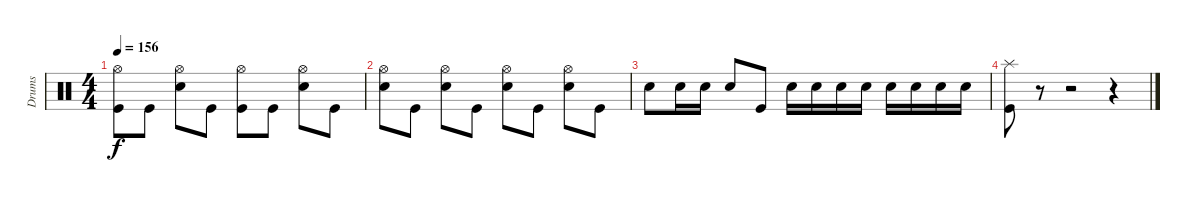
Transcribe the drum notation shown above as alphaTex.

\track ("Drums" "Drums") {instrument percussion}
\staff {score}
\articulation defaults
\ts (4 4)
\tempo 156
\clef neutral
\ks c
("Kick (hit)" "Hi-Hat (open)").8{dy f} "Kick (hit)".8 ("Snare (hit) 2" "Hi-Hat (open)").8 "Kick (hit)".8 ("Kick (hit)" "Hi-Hat (open)").8 "Kick (hit)".8 ("Snare (hit) 2" "Hi-Hat (open)").8 "Kick (hit)".8 |
("Hi-Hat (open)" "Snare (hit) 2").8 "Kick (hit)".8 ("Snare (hit) 2" "Hi-Hat (open)").8 "Kick (hit)".8 ("Snare (hit) 2" "Hi-Hat (open)").8 "Kick (hit)".8 ("Snare (hit) 2" "Hi-Hat (open)").8 "Kick (hit)".8 |
"Snare (hit) 2".8 "Snare (hit) 2".16 "Snare (hit) 2".16 "Snare (hit) 2".8 "Kick (hit)".8 "Snare (hit) 2".16 "Snare (hit) 2".16 "Snare (hit) 2".16 "Snare (hit) 2".16 "Snare (hit) 2".16 "Snare (hit) 2".16 "Snare (hit) 2".16 "Snare (hit) 2".16 |
("Kick (hit)" "Splash (hit)").8 r.8 r.2 r.4
